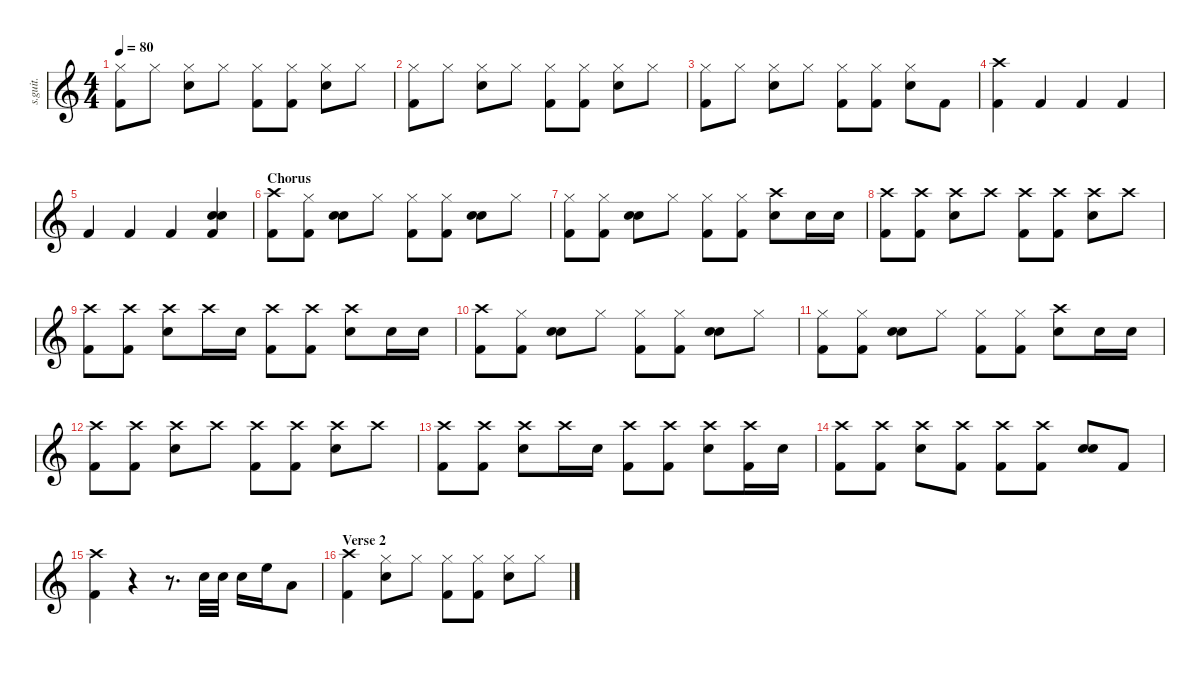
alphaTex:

\defaultSystemsLayout 4
\hideDynamics
\bracketExtendMode nobrackets
\track ("Tré Cool" "s.guit.") {instrument percussion}
\staff {score}
\articulation defaults
\ts (4 4)
\tempo 80
\clef g2
\ks c
("Hi-Hat (closed)" "Kick (hit) 2").8{lyrics (0 "") lyrics (1 "") lyrics (2 "") lyrics (3 "") lyrics (4 "") dy f} "Hi-Hat (closed)".8{lyrics (0 "") lyrics (1 "") lyrics (2 "") lyrics (3 "") lyrics (4 "")} ("Hi-Hat (closed)" "Snare (hit) 2").8{lyrics (0 "") lyrics (1 "") lyrics (2 "") lyrics (3 "") lyrics (4 "")} "Hi-Hat (closed)".8{lyrics (0 "") lyrics (1 "") lyrics (2 "") lyrics (3 "") lyrics (4 "")} ("Hi-Hat (closed)" "Kick (hit) 2").8{lyrics (0 "") lyrics (1 "") lyrics (2 "") lyrics (3 "") lyrics (4 "")} ("Hi-Hat (closed)" "Kick (hit) 2").8{lyrics (0 "") lyrics (1 "") lyrics (2 "") lyrics (3 "") lyrics (4 "")} ("Hi-Hat (closed)" "Snare (hit) 2").8{lyrics (0 "") lyrics (1 "") lyrics (2 "") lyrics (3 "") lyrics (4 "")} "Hi-Hat (closed)".8{lyrics (0 "") lyrics (1 "") lyrics (2 "") lyrics (3 "") lyrics (4 "")} |
("Hi-Hat (closed)" "Kick (hit) 2").8{lyrics (0 "") lyrics (1 "") lyrics (2 "") lyrics (3 "") lyrics (4 "")} "Hi-Hat (closed)".8{lyrics (0 "") lyrics (1 "") lyrics (2 "") lyrics (3 "") lyrics (4 "")} ("Hi-Hat (closed)" "Snare (hit) 2").8{lyrics (0 "") lyrics (1 "") lyrics (2 "") lyrics (3 "") lyrics (4 "")} "Hi-Hat (closed)".8{lyrics (0 "") lyrics (1 "") lyrics (2 "") lyrics (3 "") lyrics (4 "")} ("Hi-Hat (closed)" "Kick (hit) 2").8{lyrics (0 "") lyrics (1 "") lyrics (2 "") lyrics (3 "") lyrics (4 "")} ("Hi-Hat (closed)" "Kick (hit) 2").8{lyrics (0 "") lyrics (1 "") lyrics (2 "") lyrics (3 "") lyrics (4 "")} ("Hi-Hat (closed)" "Snare (hit) 2").8{lyrics (0 "") lyrics (1 "") lyrics (2 "") lyrics (3 "") lyrics (4 "")} "Hi-Hat (closed)".8{lyrics (0 "") lyrics (1 "") lyrics (2 "") lyrics (3 "") lyrics (4 "")} |
("Hi-Hat (closed)" "Kick (hit) 2").8{lyrics (0 "") lyrics (1 "") lyrics (2 "") lyrics (3 "") lyrics (4 "")} "Hi-Hat (closed)".8{lyrics (0 "") lyrics (1 "") lyrics (2 "") lyrics (3 "") lyrics (4 "")} ("Hi-Hat (closed)" "Snare (hit) 2").8{lyrics (0 "") lyrics (1 "") lyrics (2 "") lyrics (3 "") lyrics (4 "")} "Hi-Hat (closed)".8{lyrics (0 "") lyrics (1 "") lyrics (2 "") lyrics (3 "") lyrics (4 "")} ("Hi-Hat (closed)" "Kick (hit) 2").8{lyrics (0 "") lyrics (1 "") lyrics (2 "") lyrics (3 "") lyrics (4 "")} ("Hi-Hat (closed)" "Kick (hit) 2").8{lyrics (0 "") lyrics (1 "") lyrics (2 "") lyrics (3 "") lyrics (4 "")} ("Hi-Hat (closed)" "Snare (hit) 2").8{lyrics (0 "") lyrics (1 "") lyrics (2 "") lyrics (3 "") lyrics (4 "")} "Kick (hit) 2".8{lyrics (0 "") lyrics (1 "") lyrics (2 "") lyrics (3 "") lyrics (4 "")} |
("Crash high (hit)" "Kick (hit) 2").4{lyrics (0 "") lyrics (1 "") lyrics (2 "") lyrics (3 "") lyrics (4 "")} "Kick (hit) 2".4{lyrics (0 "") lyrics (1 "") lyrics (2 "") lyrics (3 "") lyrics (4 "")} "Kick (hit) 2".4{lyrics (0 "") lyrics (1 "") lyrics (2 "") lyrics (3 "") lyrics (4 "")} "Kick (hit) 2".4{lyrics (0 "") lyrics (1 "") lyrics (2 "") lyrics (3 "") lyrics (4 "")} |
"Kick (hit) 2".4{lyrics (0 "") lyrics (1 "") lyrics (2 "") lyrics (3 "") lyrics (4 "")} "Kick (hit) 2".4{lyrics (0 "") lyrics (1 "") lyrics (2 "") lyrics (3 "") lyrics (4 "")} "Kick (hit) 2".4{lyrics (0 "") lyrics (1 "") lyrics (2 "") lyrics (3 "") lyrics (4 "")} ("Snare (hit) 2" "Snare (hit) 2" "Kick (hit) 2").4{lyrics (0 "") lyrics (1 "") lyrics (2 "") lyrics (3 "") lyrics (4 "")} |
\section ("" "Chorus")
("Crash high (hit)" "Kick (hit) 2").8{lyrics (0 "") lyrics (1 "") lyrics (2 "") lyrics (3 "") lyrics (4 "")} ("Hi-Hat (closed)" "Kick (hit) 2").8{lyrics (0 "") lyrics (1 "") lyrics (2 "") lyrics (3 "") lyrics (4 "")} ("Snare (hit) 2" "Snare (hit) 2").8{lyrics (0 "") lyrics (1 "") lyrics (2 "") lyrics (3 "") lyrics (4 "")} "Hi-Hat (closed)".8{lyrics (0 "") lyrics (1 "") lyrics (2 "") lyrics (3 "") lyrics (4 "")} ("Hi-Hat (closed)" "Kick (hit) 2").8{lyrics (0 "") lyrics (1 "") lyrics (2 "") lyrics (3 "") lyrics (4 "")} ("Hi-Hat (closed)" "Kick (hit) 2").8{lyrics (0 "") lyrics (1 "") lyrics (2 "") lyrics (3 "") lyrics (4 "")} ("Snare (hit) 2" "Snare (hit) 2").8{lyrics (0 "") lyrics (1 "") lyrics (2 "") lyrics (3 "") lyrics (4 "")} "Hi-Hat (closed)".8{lyrics (0 "") lyrics (1 "") lyrics (2 "") lyrics (3 "") lyrics (4 "")} |
("Hi-Hat (closed)" "Kick (hit) 2").8{lyrics (0 "") lyrics (1 "") lyrics (2 "") lyrics (3 "") lyrics (4 "")} ("Hi-Hat (closed)" "Kick (hit) 2").8{lyrics (0 "") lyrics (1 "") lyrics (2 "") lyrics (3 "") lyrics (4 "")} ("Snare (hit) 2" "Snare (hit) 2").8{lyrics (0 "") lyrics (1 "") lyrics (2 "") lyrics (3 "") lyrics (4 "")} "Hi-Hat (closed)".8{lyrics (0 "") lyrics (1 "") lyrics (2 "") lyrics (3 "") lyrics (4 "")} ("Hi-Hat (closed)" "Kick (hit) 2").8{lyrics (0 "") lyrics (1 "") lyrics (2 "") lyrics (3 "") lyrics (4 "")} ("Hi-Hat (closed)" "Kick (hit) 2").8{lyrics (0 "") lyrics (1 "") lyrics (2 "") lyrics (3 "") lyrics (4 "")} ("Crash high (hit)" "Snare (hit) 2").8{lyrics (0 "") lyrics (1 "") lyrics (2 "") lyrics (3 "") lyrics (4 "")} "Snare (hit) 2".16{lyrics (0 "") lyrics (1 "") lyrics (2 "") lyrics (3 "") lyrics (4 "")} "Snare (hit) 2".16{lyrics (0 "") lyrics (1 "") lyrics (2 "") lyrics (3 "") lyrics (4 "")} |
("Crash high (hit)" "Kick (hit) 2").8{lyrics (0 "") lyrics (1 "") lyrics (2 "") lyrics (3 "") lyrics (4 "")} ("Crash high (hit)" "Kick (hit) 2").8{lyrics (0 "") lyrics (1 "") lyrics (2 "") lyrics (3 "") lyrics (4 "")} ("Crash high (hit)" "Snare (hit) 2").8{lyrics (0 "") lyrics (1 "") lyrics (2 "") lyrics (3 "") lyrics (4 "")} "Crash high (hit)".8{lyrics (0 "") lyrics (1 "") lyrics (2 "") lyrics (3 "") lyrics (4 "")} ("Crash high (hit)" "Kick (hit) 2").8{lyrics (0 "") lyrics (1 "") lyrics (2 "") lyrics (3 "") lyrics (4 "")} ("Crash high (hit)" "Kick (hit) 2").8{lyrics (0 "") lyrics (1 "") lyrics (2 "") lyrics (3 "") lyrics (4 "")} ("Crash high (hit)" "Snare (hit) 2").8{lyrics (0 "") lyrics (1 "") lyrics (2 "") lyrics (3 "") lyrics (4 "")} "Crash high (hit)".8{lyrics (0 "") lyrics (1 "") lyrics (2 "") lyrics (3 "") lyrics (4 "")} |
("Crash high (hit)" "Kick (hit) 2").8{lyrics (0 "") lyrics (1 "") lyrics (2 "") lyrics (3 "") lyrics (4 "")} ("Crash high (hit)" "Kick (hit) 2").8{lyrics (0 "") lyrics (1 "") lyrics (2 "") lyrics (3 "") lyrics (4 "")} ("Crash high (hit)" "Snare (hit) 2").8{lyrics (0 "") lyrics (1 "") lyrics (2 "") lyrics (3 "") lyrics (4 "")} "Crash high (hit)".16{lyrics (0 "") lyrics (1 "") lyrics (2 "") lyrics (3 "") lyrics (4 "")} "Snare (hit) 2".16{lyrics (0 "") lyrics (1 "") lyrics (2 "") lyrics (3 "") lyrics (4 "")} ("Crash high (hit)" "Kick (hit) 2").8{lyrics (0 "") lyrics (1 "") lyrics (2 "") lyrics (3 "") lyrics (4 "")} ("Crash high (hit)" "Kick (hit) 2").8{lyrics (0 "") lyrics (1 "") lyrics (2 "") lyrics (3 "") lyrics (4 "")} ("Crash high (hit)" "Snare (hit) 2").8{lyrics (0 "") lyrics (1 "") lyrics (2 "") lyrics (3 "") lyrics (4 "")} "Snare (hit) 2".16{lyrics (0 "") lyrics (1 "") lyrics (2 "") lyrics (3 "") lyrics (4 "")} "Snare (hit) 2".16{lyrics (0 "") lyrics (1 "") lyrics (2 "") lyrics (3 "") lyrics (4 "")} |
("Crash high (hit)" "Kick (hit) 2").8{lyrics (0 "") lyrics (1 "") lyrics (2 "") lyrics (3 "") lyrics (4 "")} ("Hi-Hat (closed)" "Kick (hit) 2").8{lyrics (0 "") lyrics (1 "") lyrics (2 "") lyrics (3 "") lyrics (4 "")} ("Snare (hit) 2" "Snare (hit) 2").8{lyrics (0 "") lyrics (1 "") lyrics (2 "") lyrics (3 "") lyrics (4 "")} "Hi-Hat (closed)".8{lyrics (0 "") lyrics (1 "") lyrics (2 "") lyrics (3 "") lyrics (4 "")} ("Hi-Hat (closed)" "Kick (hit) 2").8{lyrics (0 "") lyrics (1 "") lyrics (2 "") lyrics (3 "") lyrics (4 "")} ("Hi-Hat (closed)" "Kick (hit) 2").8{lyrics (0 "") lyrics (1 "") lyrics (2 "") lyrics (3 "") lyrics (4 "")} ("Snare (hit) 2" "Snare (hit) 2").8{lyrics (0 "") lyrics (1 "") lyrics (2 "") lyrics (3 "") lyrics (4 "")} "Hi-Hat (closed)".8{lyrics (0 "") lyrics (1 "") lyrics (2 "") lyrics (3 "") lyrics (4 "")} |
("Hi-Hat (closed)" "Kick (hit) 2").8{lyrics (0 "") lyrics (1 "") lyrics (2 "") lyrics (3 "") lyrics (4 "")} ("Hi-Hat (closed)" "Kick (hit) 2").8{lyrics (0 "") lyrics (1 "") lyrics (2 "") lyrics (3 "") lyrics (4 "")} ("Snare (hit) 2" "Snare (hit) 2").8{lyrics (0 "") lyrics (1 "") lyrics (2 "") lyrics (3 "") lyrics (4 "")} "Hi-Hat (closed)".8{lyrics (0 "") lyrics (1 "") lyrics (2 "") lyrics (3 "") lyrics (4 "")} ("Hi-Hat (closed)" "Kick (hit) 2").8{lyrics (0 "") lyrics (1 "") lyrics (2 "") lyrics (3 "") lyrics (4 "")} ("Hi-Hat (closed)" "Kick (hit) 2").8{lyrics (0 "") lyrics (1 "") lyrics (2 "") lyrics (3 "") lyrics (4 "")} ("Crash high (hit)" "Snare (hit) 2").8{lyrics (0 "") lyrics (1 "") lyrics (2 "") lyrics (3 "") lyrics (4 "")} "Snare (hit) 2".16{lyrics (0 "") lyrics (1 "") lyrics (2 "") lyrics (3 "") lyrics (4 "")} "Snare (hit) 2".16{lyrics (0 "") lyrics (1 "") lyrics (2 "") lyrics (3 "") lyrics (4 "")} |
("Crash high (hit)" "Kick (hit) 2").8{lyrics (0 "") lyrics (1 "") lyrics (2 "") lyrics (3 "") lyrics (4 "")} ("Crash high (hit)" "Kick (hit) 2").8{lyrics (0 "") lyrics (1 "") lyrics (2 "") lyrics (3 "") lyrics (4 "")} ("Crash high (hit)" "Snare (hit) 2").8{lyrics (0 "") lyrics (1 "") lyrics (2 "") lyrics (3 "") lyrics (4 "")} "Crash high (hit)".8{lyrics (0 "") lyrics (1 "") lyrics (2 "") lyrics (3 "") lyrics (4 "")} ("Crash high (hit)" "Kick (hit) 2").8{lyrics (0 "") lyrics (1 "") lyrics (2 "") lyrics (3 "") lyrics (4 "")} ("Crash high (hit)" "Kick (hit) 2").8{lyrics (0 "") lyrics (1 "") lyrics (2 "") lyrics (3 "") lyrics (4 "")} ("Crash high (hit)" "Snare (hit) 2").8{lyrics (0 "") lyrics (1 "") lyrics (2 "") lyrics (3 "") lyrics (4 "")} "Crash high (hit)".8{lyrics (0 "") lyrics (1 "") lyrics (2 "") lyrics (3 "") lyrics (4 "")} |
("Crash high (hit)" "Kick (hit) 2").8{lyrics (0 "") lyrics (1 "") lyrics (2 "") lyrics (3 "") lyrics (4 "")} ("Crash high (hit)" "Kick (hit) 2").8{lyrics (0 "") lyrics (1 "") lyrics (2 "") lyrics (3 "") lyrics (4 "")} ("Crash high (hit)" "Snare (hit) 2").8{lyrics (0 "") lyrics (1 "") lyrics (2 "") lyrics (3 "") lyrics (4 "")} "Crash high (hit)".16{lyrics (0 "") lyrics (1 "") lyrics (2 "") lyrics (3 "") lyrics (4 "")} "Snare (hit) 2".16{lyrics (0 "") lyrics (1 "") lyrics (2 "") lyrics (3 "") lyrics (4 "")} ("Crash high (hit)" "Kick (hit) 2").8{lyrics (0 "") lyrics (1 "") lyrics (2 "") lyrics (3 "") lyrics (4 "")} ("Crash high (hit)" "Kick (hit) 2").8{lyrics (0 "") lyrics (1 "") lyrics (2 "") lyrics (3 "") lyrics (4 "")} ("Crash high (hit)" "Snare (hit) 2").8{lyrics (0 "") lyrics (1 "") lyrics (2 "") lyrics (3 "") lyrics (4 "")} ("Crash high (hit)" "Kick (hit) 2").16{lyrics (0 "") lyrics (1 "") lyrics (2 "") lyrics (3 "") lyrics (4 "")} "Snare (hit) 2".16{lyrics (0 "") lyrics (1 "") lyrics (2 "") lyrics (3 "") lyrics (4 "")} |
("Crash high (hit)" "Kick (hit) 2").8{lyrics (0 "") lyrics (1 "") lyrics (2 "") lyrics (3 "") lyrics (4 "")} ("Crash high (hit)" "Kick (hit) 2").8{lyrics (0 "") lyrics (1 "") lyrics (2 "") lyrics (3 "") lyrics (4 "")} ("Crash high (hit)" "Snare (hit) 2").8{lyrics (0 "") lyrics (1 "") lyrics (2 "") lyrics (3 "") lyrics (4 "")} ("Crash high (hit)" "Kick (hit) 2").8{lyrics (0 "") lyrics (1 "") lyrics (2 "") lyrics (3 "") lyrics (4 "")} ("Crash high (hit)" "Kick (hit) 2").8{lyrics (0 "") lyrics (1 "") lyrics (2 "") lyrics (3 "") lyrics (4 "")} ("Crash high (hit)" "Kick (hit) 2").8{lyrics (0 "") lyrics (1 "") lyrics (2 "") lyrics (3 "") lyrics (4 "")} ("Snare (hit) 2" "Snare (hit) 2").8{lyrics (0 "") lyrics (1 "") lyrics (2 "") lyrics (3 "") lyrics (4 "")} "Kick (hit) 2".8{lyrics (0 "") lyrics (1 "") lyrics (2 "") lyrics (3 "") lyrics (4 "")} |
("Crash high (hit)" "Kick (hit) 2").4{lyrics (0 "") lyrics (1 "") lyrics (2 "") lyrics (3 "") lyrics (4 "")} r.4 r.8{d} "Snare (hit) 2".32{lyrics (0 "") lyrics (1 "") lyrics (2 "") lyrics (3 "") lyrics (4 "") dy mp} "Snare (hit) 2".32{lyrics (0 "") lyrics (1 "") lyrics (2 "") lyrics (3 "") lyrics (4 "")} "Snare (hit) 2".16{lyrics (0 "") lyrics (1 "") lyrics (2 "") lyrics (3 "") lyrics (4 "") dy f} "High Floor Tom (hit)".16{lyrics (0 "") lyrics (1 "") lyrics (2 "") lyrics (3 "") lyrics (4 "")} "Low Tom (hit)".8{lyrics (0 "") lyrics (1 "") lyrics (2 "") lyrics (3 "") lyrics (4 "")} |
\section ("" "Verse 2")
("Crash high (hit)" "Kick (hit) 2").4{lyrics (0 "") lyrics (1 "") lyrics (2 "") lyrics (3 "") lyrics (4 "")} ("Hi-Hat (closed)" "Snare (hit) 2").8{lyrics (0 "") lyrics (1 "") lyrics (2 "") lyrics (3 "") lyrics (4 "")} "Hi-Hat (closed)".8{lyrics (0 "") lyrics (1 "") lyrics (2 "") lyrics (3 "") lyrics (4 "")} ("Hi-Hat (closed)" "Kick (hit) 2").8{lyrics (0 "") lyrics (1 "") lyrics (2 "") lyrics (3 "") lyrics (4 "")} ("Hi-Hat (closed)" "Kick (hit) 2").8{lyrics (0 "") lyrics (1 "") lyrics (2 "") lyrics (3 "") lyrics (4 "")} ("Hi-Hat (closed)" "Snare (hit) 2").8{lyrics (0 "") lyrics (1 "") lyrics (2 "") lyrics (3 "") lyrics (4 "")} "Hi-Hat (closed)".8{lyrics (0 "") lyrics (1 "") lyrics (2 "") lyrics (3 "") lyrics (4 "")}
